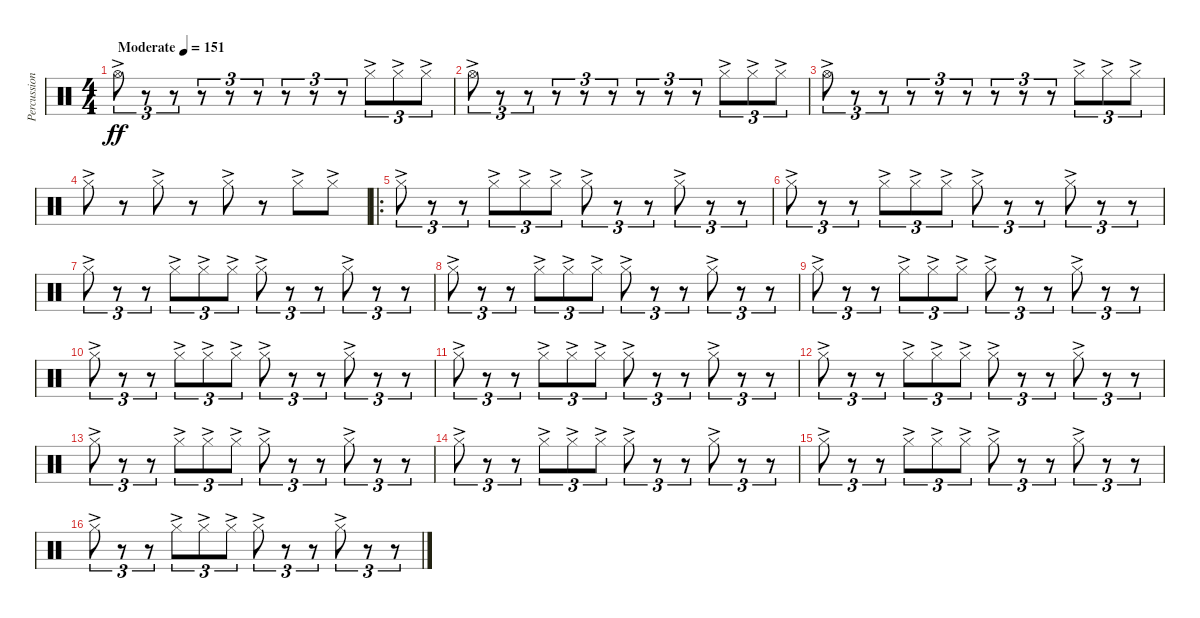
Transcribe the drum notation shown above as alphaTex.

\track ("Percussion" "Percussion") {instrument percussion}
\staff {score}
\articulation defaults
\ts (4 4)
\tempo (151 "Moderate")
\clef neutral
\ks c "Hi-Hat (open)"{ac}.8{tu (3 2) dy ff}
r.8{tu (3 2)} r.8{tu (3 2)} r.8{tu (3 2)} r.8{tu (3 2)} r.8{tu (3 2)} r.8{tu (3 2)} r.8{tu (3 2)} r.8{tu (3 2)} "Hi-Hat (closed)"{ac}.8{tu (3 2)} "Hi-Hat (closed)"{ac}.8{tu (3 2)} "Hi-Hat (closed)"{ac}.8{tu (3 2)} |
"Hi-Hat (open)"{ac}.8{tu (3 2)} r.8{tu (3 2)} r.8{tu (3 2)} r.8{tu (3 2)} r.8{tu (3 2)} r.8{tu (3 2)} r.8{tu (3 2)} r.8{tu (3 2)} r.8{tu (3 2)} "Hi-Hat (closed)"{ac}.8{tu (3 2)} "Hi-Hat (closed)"{ac}.8{tu (3 2)} "Hi-Hat (closed)"{ac}.8{tu (3 2)} |
"Hi-Hat (open)"{ac}.8{tu (3 2)} r.8{tu (3 2)} r.8{tu (3 2)} r.8{tu (3 2)} r.8{tu (3 2)} r.8{tu (3 2)} r.8{tu (3 2)} r.8{tu (3 2)} r.8{tu (3 2)} "Hi-Hat (closed)"{ac}.8{tu (3 2)} "Hi-Hat (closed)"{ac}.8{tu (3 2)} "Hi-Hat (closed)"{ac}.8{tu (3 2)} |
"Hi-Hat (closed)"{ac}.8 r.8 "Hi-Hat (closed)"{ac}.8 r.8 "Hi-Hat (closed)"{ac}.8 r.8 "Hi-Hat (closed)"{ac}.8 "Hi-Hat (closed)"{ac}.8 |
\ro "Hi-Hat (closed)"{ac}.8{tu (3 2)}
r.8{tu (3 2)} r.8{tu (3 2)} "Hi-Hat (closed)"{ac}.8{tu (3 2)} "Hi-Hat (closed)"{ac}.8{tu (3 2)} "Hi-Hat (closed)"{ac}.8{tu (3 2)} "Hi-Hat (closed)"{ac}.8{tu (3 2)} r.8{tu (3 2)} r.8{tu (3 2)} "Hi-Hat (closed)"{ac}.8{tu (3 2)} r.8{tu (3 2)} r.8{tu (3 2)} |
"Hi-Hat (closed)"{ac}.8{tu (3 2)} r.8{tu (3 2)} r.8{tu (3 2)} "Hi-Hat (closed)"{ac}.8{tu (3 2)} "Hi-Hat (closed)"{ac}.8{tu (3 2)} "Hi-Hat (closed)"{ac}.8{tu (3 2)} "Hi-Hat (closed)"{ac}.8{tu (3 2)} r.8{tu (3 2)} r.8{tu (3 2)} "Hi-Hat (closed)"{ac}.8{tu (3 2)} r.8{tu (3 2)} r.8{tu (3 2)} |
"Hi-Hat (closed)"{ac}.8{tu (3 2)} r.8{tu (3 2)} r.8{tu (3 2)} "Hi-Hat (closed)"{ac}.8{tu (3 2)} "Hi-Hat (closed)"{ac}.8{tu (3 2)} "Hi-Hat (closed)"{ac}.8{tu (3 2)} "Hi-Hat (closed)"{ac}.8{tu (3 2)} r.8{tu (3 2)} r.8{tu (3 2)} "Hi-Hat (closed)"{ac}.8{tu (3 2)} r.8{tu (3 2)} r.8{tu (3 2)} |
"Hi-Hat (closed)"{ac}.8{tu (3 2)} r.8{tu (3 2)} r.8{tu (3 2)} "Hi-Hat (closed)"{ac}.8{tu (3 2)} "Hi-Hat (closed)"{ac}.8{tu (3 2)} "Hi-Hat (closed)"{ac}.8{tu (3 2)} "Hi-Hat (closed)"{ac}.8{tu (3 2)} r.8{tu (3 2)} r.8{tu (3 2)} "Hi-Hat (closed)"{ac}.8{tu (3 2)} r.8{tu (3 2)} r.8{tu (3 2)} |
"Hi-Hat (closed)"{ac}.8{tu (3 2)} r.8{tu (3 2)} r.8{tu (3 2)} "Hi-Hat (closed)"{ac}.8{tu (3 2)} "Hi-Hat (closed)"{ac}.8{tu (3 2)} "Hi-Hat (closed)"{ac}.8{tu (3 2)} "Hi-Hat (closed)"{ac}.8{tu (3 2)} r.8{tu (3 2)} r.8{tu (3 2)} "Hi-Hat (closed)"{ac}.8{tu (3 2)} r.8{tu (3 2)} r.8{tu (3 2)} |
"Hi-Hat (closed)"{ac}.8{tu (3 2)} r.8{tu (3 2)} r.8{tu (3 2)} "Hi-Hat (closed)"{ac}.8{tu (3 2)} "Hi-Hat (closed)"{ac}.8{tu (3 2)} "Hi-Hat (closed)"{ac}.8{tu (3 2)} "Hi-Hat (closed)"{ac}.8{tu (3 2)} r.8{tu (3 2)} r.8{tu (3 2)} "Hi-Hat (closed)"{ac}.8{tu (3 2)} r.8{tu (3 2)} r.8{tu (3 2)} |
"Hi-Hat (closed)"{ac}.8{tu (3 2)} r.8{tu (3 2)} r.8{tu (3 2)} "Hi-Hat (closed)"{ac}.8{tu (3 2)} "Hi-Hat (closed)"{ac}.8{tu (3 2)} "Hi-Hat (closed)"{ac}.8{tu (3 2)} "Hi-Hat (closed)"{ac}.8{tu (3 2)} r.8{tu (3 2)} r.8{tu (3 2)} "Hi-Hat (closed)"{ac}.8{tu (3 2)} r.8{tu (3 2)} r.8{tu (3 2)} |
"Hi-Hat (closed)"{ac}.8{tu (3 2)} r.8{tu (3 2)} r.8{tu (3 2)} "Hi-Hat (closed)"{ac}.8{tu (3 2)} "Hi-Hat (closed)"{ac}.8{tu (3 2)} "Hi-Hat (closed)"{ac}.8{tu (3 2)} "Hi-Hat (closed)"{ac}.8{tu (3 2)} r.8{tu (3 2)} r.8{tu (3 2)} "Hi-Hat (closed)"{ac}.8{tu (3 2)} r.8{tu (3 2)} r.8{tu (3 2)} |
"Hi-Hat (closed)"{ac}.8{tu (3 2)} r.8{tu (3 2)} r.8{tu (3 2)} "Hi-Hat (closed)"{ac}.8{tu (3 2)} "Hi-Hat (closed)"{ac}.8{tu (3 2)} "Hi-Hat (closed)"{ac}.8{tu (3 2)} "Hi-Hat (closed)"{ac}.8{tu (3 2)} r.8{tu (3 2)} r.8{tu (3 2)} "Hi-Hat (closed)"{ac}.8{tu (3 2)} r.8{tu (3 2)} r.8{tu (3 2)} |
"Hi-Hat (closed)"{ac}.8{tu (3 2)} r.8{tu (3 2)} r.8{tu (3 2)} "Hi-Hat (closed)"{ac}.8{tu (3 2)} "Hi-Hat (closed)"{ac}.8{tu (3 2)} "Hi-Hat (closed)"{ac}.8{tu (3 2)} "Hi-Hat (closed)"{ac}.8{tu (3 2)} r.8{tu (3 2)} r.8{tu (3 2)} "Hi-Hat (closed)"{ac}.8{tu (3 2)} r.8{tu (3 2)} r.8{tu (3 2)} |
"Hi-Hat (closed)"{ac}.8{tu (3 2)} r.8{tu (3 2)} r.8{tu (3 2)} "Hi-Hat (closed)"{ac}.8{tu (3 2)} "Hi-Hat (closed)"{ac}.8{tu (3 2)} "Hi-Hat (closed)"{ac}.8{tu (3 2)} "Hi-Hat (closed)"{ac}.8{tu (3 2)} r.8{tu (3 2)} r.8{tu (3 2)} "Hi-Hat (closed)"{ac}.8{tu (3 2)} r.8{tu (3 2)} r.8{tu (3 2)} |
"Hi-Hat (closed)"{ac}.8{tu (3 2)} r.8{tu (3 2)} r.8{tu (3 2)} "Hi-Hat (closed)"{ac}.8{tu (3 2)} "Hi-Hat (closed)"{ac}.8{tu (3 2)} "Hi-Hat (closed)"{ac}.8{tu (3 2)} "Hi-Hat (closed)"{ac}.8{tu (3 2)} r.8{tu (3 2)} r.8{tu (3 2)} "Hi-Hat (closed)"{ac}.8{tu (3 2)} r.8{tu (3 2)} r.8{tu (3 2)}
